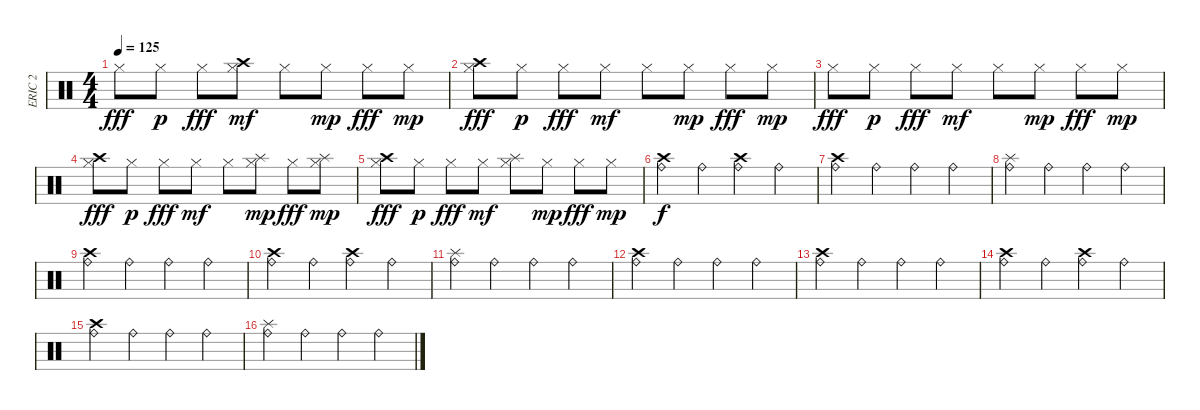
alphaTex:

\track ("ERIC 2" "ERIC 2") {instrument percussion}
\staff {score}
\articulation defaults
\ts (4 4)
\tempo 125
\clef neutral
\ks c "Hi-Hat (closed)".8{dy fff} "Hi-Hat (closed)".8{dy p} "Hi-Hat (closed)".8{dy fff}
("Crash high (hit)" "Hi-Hat (closed)").8{dy mf} "Hi-Hat (closed)".8 "Hi-Hat (closed)".8{dy mp} "Hi-Hat (closed)".8{dy fff} "Hi-Hat (closed)".8{dy mp} |
("Crash high (hit)" "Hi-Hat (closed)").8{dy fff} "Hi-Hat (closed)".8{dy p} "Hi-Hat (closed)".8{dy fff} "Hi-Hat (closed)".8{dy mf} "Hi-Hat (closed)".8 "Hi-Hat (closed)".8{dy mp} "Hi-Hat (closed)".8{dy fff} "Hi-Hat (closed)".8{dy mp} |
"Hi-Hat (closed)".8{dy fff} "Hi-Hat (closed)".8{dy p} "Hi-Hat (closed)".8{dy fff} "Hi-Hat (closed)".8{dy mf} "Hi-Hat (closed)".8 "Hi-Hat (closed)".8{dy mp} "Hi-Hat (closed)".8{dy fff} "Hi-Hat (closed)".8{dy mp} |
("Crash high (hit)" "Hi-Hat (closed)").8{dy fff} "Hi-Hat (closed)".8{dy p} "Hi-Hat (closed)".8{dy fff} "Hi-Hat (closed)".8{dy mf} "Hi-Hat (closed)".8 ("Splash (hit)" "Hi-Hat (closed)").8{dy mp} "Hi-Hat (closed)".8{dy fff} ("Splash (hit)" "Hi-Hat (closed)").8{dy mp} |
("Crash high (hit)" "Hi-Hat (closed)").8{dy fff} "Hi-Hat (closed)".8{dy p} "Hi-Hat (closed)".8{dy fff} "Hi-Hat (closed)".8{dy mf} ("Splash (hit)" "Hi-Hat (closed)").8 "Hi-Hat (closed)".8{dy mp} "Hi-Hat (closed)".8{dy fff} "Hi-Hat (closed)".8{dy mp} |
("Crash high (hit)" "Ride (bell)").4{dy f} "Ride (bell)".4 ("Crash high (hit)" "Ride (bell)").4 "Ride (bell)".4 |
("Crash high (hit)" "Ride (bell)").4 "Ride (bell)".4 "Ride (bell)".4 "Ride (bell)".4 |
("Splash (hit)" "Ride (bell)").4 "Ride (bell)".4 "Ride (bell)".4 "Ride (bell)".4 |
("Crash high (hit)" "Ride (bell)").4 "Ride (bell)".4 "Ride (bell)".4 "Ride (bell)".4 |
("Crash high (hit)" "Ride (bell)").4 "Ride (bell)".4 ("Crash high (hit)" "Ride (bell)").4 "Ride (bell)".4 |
("Splash (hit)" "Ride (bell)").4 "Ride (bell)".4 "Ride (bell)".4 "Ride (bell)".4 |
("Crash high (hit)" "Ride (bell)").4 "Ride (bell)".4 "Ride (bell)".4 "Ride (bell)".4 |
("Crash high (hit)" "Ride (bell)").4 "Ride (bell)".4 "Ride (bell)".4 "Ride (bell)".4 |
("Crash high (hit)" "Ride (bell)").4 "Ride (bell)".4 ("Crash high (hit)" "Ride (bell)").4 "Ride (bell)".4 |
("Crash high (hit)" "Ride (bell)").4 "Ride (bell)".4 "Ride (bell)".4 "Ride (bell)".4 |
("Splash (hit)" "Ride (bell)").4 "Ride (bell)".4 "Ride (bell)".4 "Ride (bell)".4
